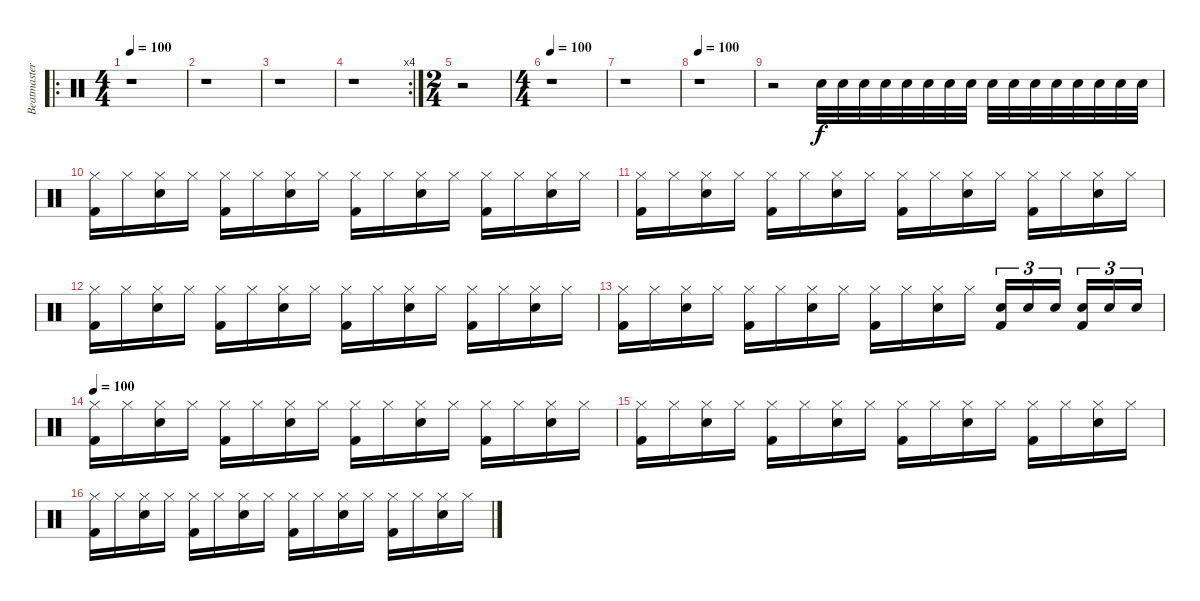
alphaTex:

\track ("Beatmaster V." "Beatmaster") {instrument percussion}
\staff {score}
\articulation defaults
\ro
\ts (4 4)
\tempo 100
\tempo 80
\tempo 100
\clef neutral
\ks c
r.1{dy f} |
r.1 |
r.1 |
\rc 4
r.1 |
\ts (2 4)
r.2 |
\ts (4 4)
\tempo 100
r.1 |
r.1 |
\tempo 100
r.1 |
r.2 "Snare (hit) 2".32 "Snare (hit) 2".32 "Snare (hit) 2".32 "Snare (hit) 2".32 "Snare (hit) 2".32 "Snare (hit) 2".32 "Snare (hit) 2".32 "Snare (hit) 2".32 "Snare (hit) 2".32 "Snare (hit) 2".32 "Snare (hit) 2".32 "Snare (hit) 2".32 "Snare (hit) 2".32 "Snare (hit) 2".32 "Snare (hit) 2".32 "Snare (hit) 2".32 |
("Hi-Hat (closed)" "Kick (hit) 2").16 "Hi-Hat (closed)".16 ("Hi-Hat (closed)" "Snare (hit) 2").16 "Hi-Hat (closed)".16 ("Hi-Hat (closed)" "Kick (hit) 2").16 "Hi-Hat (closed)".16 ("Hi-Hat (closed)" "Snare (hit) 2").16 "Hi-Hat (closed)".16 ("Hi-Hat (closed)" "Kick (hit) 2").16 "Hi-Hat (closed)".16 ("Hi-Hat (closed)" "Snare (hit) 2").16 "Hi-Hat (closed)".16 ("Hi-Hat (closed)" "Kick (hit) 2").16 "Hi-Hat (closed)".16 ("Hi-Hat (closed)" "Snare (hit) 2").16 "Hi-Hat (closed)".16 |
("Hi-Hat (closed)" "Kick (hit) 2").16 "Hi-Hat (closed)".16 ("Hi-Hat (closed)" "Snare (hit) 2").16 "Hi-Hat (closed)".16 ("Hi-Hat (closed)" "Kick (hit) 2").16 "Hi-Hat (closed)".16 ("Hi-Hat (closed)" "Snare (hit) 2").16 "Hi-Hat (closed)".16 ("Hi-Hat (closed)" "Kick (hit) 2").16 "Hi-Hat (closed)".16 ("Hi-Hat (closed)" "Snare (hit) 2").16 "Hi-Hat (closed)".16 ("Hi-Hat (closed)" "Kick (hit) 2").16 "Hi-Hat (closed)".16 ("Hi-Hat (closed)" "Snare (hit) 2").16 "Hi-Hat (closed)".16 |
("Hi-Hat (closed)" "Kick (hit) 2").16 "Hi-Hat (closed)".16 ("Hi-Hat (closed)" "Snare (hit) 2").16 "Hi-Hat (closed)".16 ("Hi-Hat (closed)" "Kick (hit) 2").16 "Hi-Hat (closed)".16 ("Hi-Hat (closed)" "Snare (hit) 2").16 "Hi-Hat (closed)".16 ("Hi-Hat (closed)" "Kick (hit) 2").16 "Hi-Hat (closed)".16 ("Hi-Hat (closed)" "Snare (hit) 2").16 "Hi-Hat (closed)".16 ("Hi-Hat (closed)" "Kick (hit) 2").16 "Hi-Hat (closed)".16 ("Hi-Hat (closed)" "Snare (hit) 2").16 "Hi-Hat (closed)".16 |
("Hi-Hat (closed)" "Kick (hit) 2").16 "Hi-Hat (closed)".16 ("Hi-Hat (closed)" "Snare (hit) 2").16 "Hi-Hat (closed)".16 ("Hi-Hat (closed)" "Kick (hit) 2").16 "Hi-Hat (closed)".16 ("Hi-Hat (closed)" "Snare (hit) 2").16 "Hi-Hat (closed)".16 ("Hi-Hat (closed)" "Kick (hit) 2").16 "Hi-Hat (closed)".16 ("Hi-Hat (closed)" "Snare (hit) 2").16 "Hi-Hat (closed)".16 ("Snare (hit) 2" "Kick (hit) 2").16{tu (3 2)} "Snare (hit) 2".16{tu (3 2)} "Snare (hit) 2".16{tu (3 2)} ("Snare (hit) 2" "Kick (hit) 2").16{tu (3 2)} "Snare (hit) 2".16{tu (3 2)} "Snare (hit) 2".16{tu (3 2)} |
\tempo 100
("Hi-Hat (closed)" "Kick (hit) 2").16 "Hi-Hat (closed)".16 ("Hi-Hat (closed)" "Snare (hit) 2").16 "Hi-Hat (closed)".16 ("Hi-Hat (closed)" "Kick (hit) 2").16 "Hi-Hat (closed)".16 ("Hi-Hat (closed)" "Snare (hit) 2").16 "Hi-Hat (closed)".16 ("Hi-Hat (closed)" "Kick (hit) 2").16 "Hi-Hat (closed)".16 ("Hi-Hat (closed)" "Snare (hit) 2").16 "Hi-Hat (closed)".16 ("Hi-Hat (closed)" "Kick (hit) 2").16 "Hi-Hat (closed)".16 ("Hi-Hat (closed)" "Snare (hit) 2").16 "Hi-Hat (closed)".16 |
("Hi-Hat (closed)" "Kick (hit) 2").16 "Hi-Hat (closed)".16 ("Hi-Hat (closed)" "Snare (hit) 2").16 "Hi-Hat (closed)".16 ("Hi-Hat (closed)" "Kick (hit) 2").16 "Hi-Hat (closed)".16 ("Hi-Hat (closed)" "Snare (hit) 2").16 "Hi-Hat (closed)".16 ("Hi-Hat (closed)" "Kick (hit) 2").16 "Hi-Hat (closed)".16 ("Hi-Hat (closed)" "Snare (hit) 2").16 "Hi-Hat (closed)".16 ("Hi-Hat (closed)" "Kick (hit) 2").16 "Hi-Hat (closed)".16 ("Hi-Hat (closed)" "Snare (hit) 2").16 "Hi-Hat (closed)".16 |
("Hi-Hat (closed)" "Kick (hit) 2").16 "Hi-Hat (closed)".16 ("Hi-Hat (closed)" "Snare (hit) 2").16 "Hi-Hat (closed)".16 ("Hi-Hat (closed)" "Kick (hit) 2").16 "Hi-Hat (closed)".16 ("Hi-Hat (closed)" "Snare (hit) 2").16 "Hi-Hat (closed)".16 ("Hi-Hat (closed)" "Kick (hit) 2").16 "Hi-Hat (closed)".16 ("Hi-Hat (closed)" "Snare (hit) 2").16 "Hi-Hat (closed)".16 ("Hi-Hat (closed)" "Kick (hit) 2").16 "Hi-Hat (closed)".16 ("Hi-Hat (closed)" "Snare (hit) 2").16 "Hi-Hat (closed)".16
